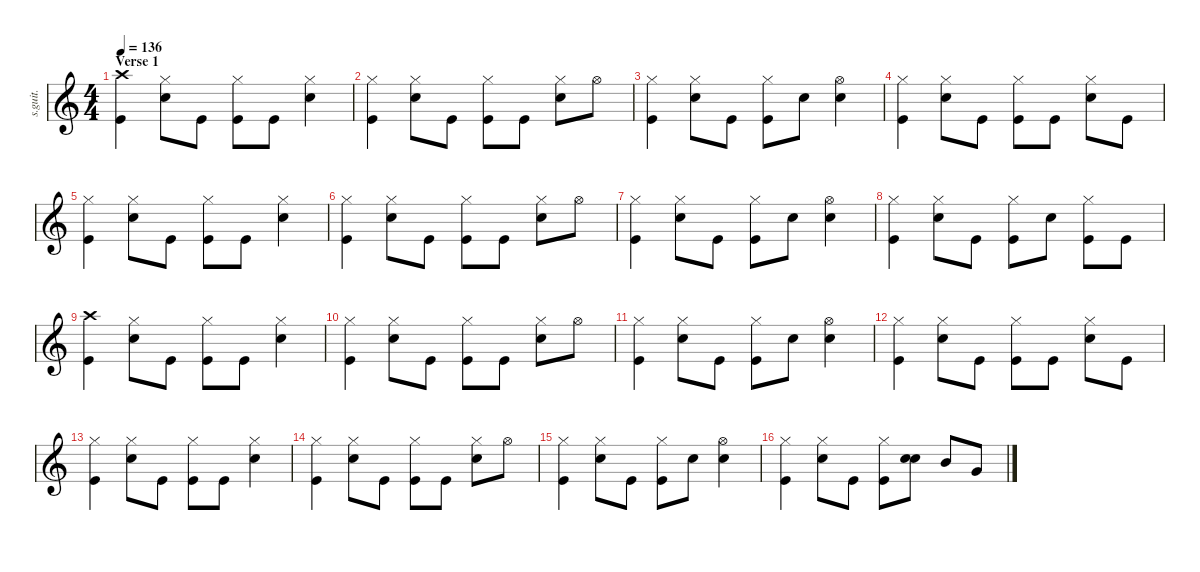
\defaultSystemsLayout 4
\hideDynamics
\bracketExtendMode nobrackets
\track ("Ilan Rubin" "s.guit.") {instrument percussion}
\staff {score}
\articulation defaults
\ts (4 4)
\beaming (8 2 2 2 2)
\section ("" "Verse 1")
\tempo 136
\clef g2
\ks c
("Crash high (hit)" "Kick (hit)").4{lyrics (0 "") lyrics (1 "") lyrics (2 "") lyrics (3 "") lyrics (4 "") dy f} ("Hi-Hat (closed)" "Electric Snare (hit)").8{lyrics (0 "") lyrics (1 "") lyrics (2 "") lyrics (3 "") lyrics (4 "")} "Kick (hit)".8{lyrics (0 "") lyrics (1 "") lyrics (2 "") lyrics (3 "") lyrics (4 "") dy ff} ("Hi-Hat (closed)" "Kick (hit)").8{lyrics (0 "") lyrics (1 "") lyrics (2 "") lyrics (3 "") lyrics (4 "")} "Kick (hit)".8{lyrics (0 "") lyrics (1 "") lyrics (2 "") lyrics (3 "") lyrics (4 "")} ("Hi-Hat (closed)" "Electric Snare (hit)").4{lyrics (0 "") lyrics (1 "") lyrics (2 "") lyrics (3 "") lyrics (4 "") dy f} |
("Hi-Hat (closed)" "Kick (hit)").4{lyrics (0 "") lyrics (1 "") lyrics (2 "") lyrics (3 "") lyrics (4 "")} ("Hi-Hat (closed)" "Electric Snare (hit)").8{lyrics (0 "") lyrics (1 "") lyrics (2 "") lyrics (3 "") lyrics (4 "")} "Kick (hit)".8{lyrics (0 "") lyrics (1 "") lyrics (2 "") lyrics (3 "") lyrics (4 "") dy ff} ("Hi-Hat (closed)" "Kick (hit)").8{lyrics (0 "") lyrics (1 "") lyrics (2 "") lyrics (3 "") lyrics (4 "")} "Kick (hit)".8{lyrics (0 "") lyrics (1 "") lyrics (2 "") lyrics (3 "") lyrics (4 "")} ("Hi-Hat (closed)" "Electric Snare (hit)").8{lyrics (0 "") lyrics (1 "") lyrics (2 "") lyrics (3 "") lyrics (4 "") dy f} "Hi-Hat (open)".8{lyrics (0 "") lyrics (1 "") lyrics (2 "") lyrics (3 "") lyrics (4 "")} |
("Hi-Hat (closed)" "Kick (hit)").4{lyrics (0 "") lyrics (1 "") lyrics (2 "") lyrics (3 "") lyrics (4 "")} ("Hi-Hat (closed)" "Electric Snare (hit)").8{lyrics (0 "") lyrics (1 "") lyrics (2 "") lyrics (3 "") lyrics (4 "")} "Kick (hit)".8{lyrics (0 "") lyrics (1 "") lyrics (2 "") lyrics (3 "") lyrics (4 "") dy ff} ("Hi-Hat (closed)" "Kick (hit)").8{lyrics (0 "") lyrics (1 "") lyrics (2 "") lyrics (3 "") lyrics (4 "")} "Electric Snare (hit)".8{lyrics (0 "") lyrics (1 "") lyrics (2 "") lyrics (3 "") lyrics (4 "") dy f} ("Hi-Hat (open)" "Electric Snare (hit)").4{lyrics (0 "") lyrics (1 "") lyrics (2 "") lyrics (3 "") lyrics (4 "")} |
("Hi-Hat (closed)" "Kick (hit)").4{lyrics (0 "") lyrics (1 "") lyrics (2 "") lyrics (3 "") lyrics (4 "")} ("Hi-Hat (closed)" "Electric Snare (hit)").8{lyrics (0 "") lyrics (1 "") lyrics (2 "") lyrics (3 "") lyrics (4 "")} "Kick (hit)".8{lyrics (0 "") lyrics (1 "") lyrics (2 "") lyrics (3 "") lyrics (4 "") dy ff} ("Hi-Hat (closed)" "Kick (hit)").8{lyrics (0 "") lyrics (1 "") lyrics (2 "") lyrics (3 "") lyrics (4 "")} "Kick (hit)".8{lyrics (0 "") lyrics (1 "") lyrics (2 "") lyrics (3 "") lyrics (4 "")} ("Hi-Hat (closed)" "Electric Snare (hit)").8{lyrics (0 "") lyrics (1 "") lyrics (2 "") lyrics (3 "") lyrics (4 "") dy f} "Kick (hit)".8{lyrics (0 "") lyrics (1 "") lyrics (2 "") lyrics (3 "") lyrics (4 "") dy ff} |
("Hi-Hat (closed)" "Kick (hit)").4{lyrics (0 "") lyrics (1 "") lyrics (2 "") lyrics (3 "") lyrics (4 "")} ("Hi-Hat (closed)" "Electric Snare (hit)").8{lyrics (0 "") lyrics (1 "") lyrics (2 "") lyrics (3 "") lyrics (4 "") dy f} "Kick (hit)".8{lyrics (0 "") lyrics (1 "") lyrics (2 "") lyrics (3 "") lyrics (4 "") dy ff} ("Hi-Hat (closed)" "Kick (hit)").8{lyrics (0 "") lyrics (1 "") lyrics (2 "") lyrics (3 "") lyrics (4 "")} "Kick (hit)".8{lyrics (0 "") lyrics (1 "") lyrics (2 "") lyrics (3 "") lyrics (4 "")} ("Hi-Hat (closed)" "Electric Snare (hit)").4{lyrics (0 "") lyrics (1 "") lyrics (2 "") lyrics (3 "") lyrics (4 "") dy f} |
("Hi-Hat (closed)" "Kick (hit)").4{lyrics (0 "") lyrics (1 "") lyrics (2 "") lyrics (3 "") lyrics (4 "")} ("Hi-Hat (closed)" "Electric Snare (hit)").8{lyrics (0 "") lyrics (1 "") lyrics (2 "") lyrics (3 "") lyrics (4 "")} "Kick (hit)".8{lyrics (0 "") lyrics (1 "") lyrics (2 "") lyrics (3 "") lyrics (4 "") dy ff} ("Hi-Hat (closed)" "Kick (hit)").8{lyrics (0 "") lyrics (1 "") lyrics (2 "") lyrics (3 "") lyrics (4 "")} "Kick (hit)".8{lyrics (0 "") lyrics (1 "") lyrics (2 "") lyrics (3 "") lyrics (4 "")} ("Hi-Hat (closed)" "Electric Snare (hit)").8{lyrics (0 "") lyrics (1 "") lyrics (2 "") lyrics (3 "") lyrics (4 "") dy f} "Hi-Hat (open)".8{lyrics (0 "") lyrics (1 "") lyrics (2 "") lyrics (3 "") lyrics (4 "")} |
("Hi-Hat (closed)" "Kick (hit)").4{lyrics (0 "") lyrics (1 "") lyrics (2 "") lyrics (3 "") lyrics (4 "")} ("Hi-Hat (closed)" "Electric Snare (hit)").8{lyrics (0 "") lyrics (1 "") lyrics (2 "") lyrics (3 "") lyrics (4 "")} "Kick (hit)".8{lyrics (0 "") lyrics (1 "") lyrics (2 "") lyrics (3 "") lyrics (4 "") dy ff} ("Hi-Hat (closed)" "Kick (hit)").8{lyrics (0 "") lyrics (1 "") lyrics (2 "") lyrics (3 "") lyrics (4 "")} "Electric Snare (hit)".8{lyrics (0 "") lyrics (1 "") lyrics (2 "") lyrics (3 "") lyrics (4 "") dy f} ("Hi-Hat (open)" "Electric Snare (hit)").4{lyrics (0 "") lyrics (1 "") lyrics (2 "") lyrics (3 "") lyrics (4 "")} |
("Hi-Hat (closed)" "Kick (hit)").4{lyrics (0 "") lyrics (1 "") lyrics (2 "") lyrics (3 "") lyrics (4 "")} ("Hi-Hat (closed)" "Electric Snare (hit)").8{lyrics (0 "") lyrics (1 "") lyrics (2 "") lyrics (3 "") lyrics (4 "")} "Kick (hit)".8{lyrics (0 "") lyrics (1 "") lyrics (2 "") lyrics (3 "") lyrics (4 "") dy ff} ("Hi-Hat (closed)" "Kick (hit)").8{lyrics (0 "") lyrics (1 "") lyrics (2 "") lyrics (3 "") lyrics (4 "")} "Electric Snare (hit)".8{lyrics (0 "") lyrics (1 "") lyrics (2 "") lyrics (3 "") lyrics (4 "") dy f} ("Hi-Hat (closed)" "Kick (hit)").8{lyrics (0 "") lyrics (1 "") lyrics (2 "") lyrics (3 "") lyrics (4 "")} "Kick (hit)".8{lyrics (0 "") lyrics (1 "") lyrics (2 "") lyrics (3 "") lyrics (4 "") dy ff} |
("Crash high (hit)" "Kick (hit)").4{lyrics (0 "") lyrics (1 "") lyrics (2 "") lyrics (3 "") lyrics (4 "")} ("Hi-Hat (closed)" "Electric Snare (hit)").8{lyrics (0 "") lyrics (1 "") lyrics (2 "") lyrics (3 "") lyrics (4 "") dy f} "Kick (hit)".8{lyrics (0 "") lyrics (1 "") lyrics (2 "") lyrics (3 "") lyrics (4 "") dy ff} ("Hi-Hat (closed)" "Kick (hit)").8{lyrics (0 "") lyrics (1 "") lyrics (2 "") lyrics (3 "") lyrics (4 "")} "Kick (hit)".8{lyrics (0 "") lyrics (1 "") lyrics (2 "") lyrics (3 "") lyrics (4 "")} ("Hi-Hat (closed)" "Electric Snare (hit)").4{lyrics (0 "") lyrics (1 "") lyrics (2 "") lyrics (3 "") lyrics (4 "") dy f} |
("Hi-Hat (closed)" "Kick (hit)").4{lyrics (0 "") lyrics (1 "") lyrics (2 "") lyrics (3 "") lyrics (4 "")} ("Hi-Hat (closed)" "Electric Snare (hit)").8{lyrics (0 "") lyrics (1 "") lyrics (2 "") lyrics (3 "") lyrics (4 "")} "Kick (hit)".8{lyrics (0 "") lyrics (1 "") lyrics (2 "") lyrics (3 "") lyrics (4 "") dy ff} ("Hi-Hat (closed)" "Kick (hit)").8{lyrics (0 "") lyrics (1 "") lyrics (2 "") lyrics (3 "") lyrics (4 "")} "Kick (hit)".8{lyrics (0 "") lyrics (1 "") lyrics (2 "") lyrics (3 "") lyrics (4 "")} ("Hi-Hat (closed)" "Electric Snare (hit)").8{lyrics (0 "") lyrics (1 "") lyrics (2 "") lyrics (3 "") lyrics (4 "") dy f} "Hi-Hat (open)".8{lyrics (0 "") lyrics (1 "") lyrics (2 "") lyrics (3 "") lyrics (4 "")} |
("Hi-Hat (closed)" "Kick (hit)").4{lyrics (0 "") lyrics (1 "") lyrics (2 "") lyrics (3 "") lyrics (4 "")} ("Hi-Hat (closed)" "Electric Snare (hit)").8{lyrics (0 "") lyrics (1 "") lyrics (2 "") lyrics (3 "") lyrics (4 "")} "Kick (hit)".8{lyrics (0 "") lyrics (1 "") lyrics (2 "") lyrics (3 "") lyrics (4 "") dy ff} ("Hi-Hat (closed)" "Kick (hit)").8{lyrics (0 "") lyrics (1 "") lyrics (2 "") lyrics (3 "") lyrics (4 "")} "Electric Snare (hit)".8{lyrics (0 "") lyrics (1 "") lyrics (2 "") lyrics (3 "") lyrics (4 "") dy f} ("Hi-Hat (open)" "Electric Snare (hit)").4{lyrics (0 "") lyrics (1 "") lyrics (2 "") lyrics (3 "") lyrics (4 "")} |
("Hi-Hat (closed)" "Kick (hit)").4{lyrics (0 "") lyrics (1 "") lyrics (2 "") lyrics (3 "") lyrics (4 "")} ("Hi-Hat (closed)" "Electric Snare (hit)").8{lyrics (0 "") lyrics (1 "") lyrics (2 "") lyrics (3 "") lyrics (4 "")} "Kick (hit)".8{lyrics (0 "") lyrics (1 "") lyrics (2 "") lyrics (3 "") lyrics (4 "") dy ff} ("Hi-Hat (closed)" "Kick (hit)").8{lyrics (0 "") lyrics (1 "") lyrics (2 "") lyrics (3 "") lyrics (4 "")} "Kick (hit)".8{lyrics (0 "") lyrics (1 "") lyrics (2 "") lyrics (3 "") lyrics (4 "")} ("Hi-Hat (closed)" "Electric Snare (hit)").8{lyrics (0 "") lyrics (1 "") lyrics (2 "") lyrics (3 "") lyrics (4 "") dy f} "Kick (hit)".8{lyrics (0 "") lyrics (1 "") lyrics (2 "") lyrics (3 "") lyrics (4 "") dy ff} |
("Hi-Hat (closed)" "Kick (hit)").4{lyrics (0 "") lyrics (1 "") lyrics (2 "") lyrics (3 "") lyrics (4 "")} ("Hi-Hat (closed)" "Electric Snare (hit)").8{lyrics (0 "") lyrics (1 "") lyrics (2 "") lyrics (3 "") lyrics (4 "") dy f} "Kick (hit)".8{lyrics (0 "") lyrics (1 "") lyrics (2 "") lyrics (3 "") lyrics (4 "") dy ff} ("Hi-Hat (closed)" "Kick (hit)").8{lyrics (0 "") lyrics (1 "") lyrics (2 "") lyrics (3 "") lyrics (4 "")} "Kick (hit)".8{lyrics (0 "") lyrics (1 "") lyrics (2 "") lyrics (3 "") lyrics (4 "")} ("Hi-Hat (closed)" "Electric Snare (hit)").4{lyrics (0 "") lyrics (1 "") lyrics (2 "") lyrics (3 "") lyrics (4 "") dy f} |
("Hi-Hat (closed)" "Kick (hit)").4{lyrics (0 "") lyrics (1 "") lyrics (2 "") lyrics (3 "") lyrics (4 "")} ("Hi-Hat (closed)" "Electric Snare (hit)").8{lyrics (0 "") lyrics (1 "") lyrics (2 "") lyrics (3 "") lyrics (4 "")} "Kick (hit)".8{lyrics (0 "") lyrics (1 "") lyrics (2 "") lyrics (3 "") lyrics (4 "") dy ff} ("Hi-Hat (closed)" "Kick (hit)").8{lyrics (0 "") lyrics (1 "") lyrics (2 "") lyrics (3 "") lyrics (4 "")} "Kick (hit)".8{lyrics (0 "") lyrics (1 "") lyrics (2 "") lyrics (3 "") lyrics (4 "")} ("Hi-Hat (closed)" "Electric Snare (hit)").8{lyrics (0 "") lyrics (1 "") lyrics (2 "") lyrics (3 "") lyrics (4 "") dy f} "Hi-Hat (open)".8{lyrics (0 "") lyrics (1 "") lyrics (2 "") lyrics (3 "") lyrics (4 "")} |
("Hi-Hat (closed)" "Kick (hit)").4{lyrics (0 "") lyrics (1 "") lyrics (2 "") lyrics (3 "") lyrics (4 "")} ("Hi-Hat (closed)" "Electric Snare (hit)").8{lyrics (0 "") lyrics (1 "") lyrics (2 "") lyrics (3 "") lyrics (4 "")} "Kick (hit)".8{lyrics (0 "") lyrics (1 "") lyrics (2 "") lyrics (3 "") lyrics (4 "") dy ff} ("Hi-Hat (closed)" "Kick (hit)").8{lyrics (0 "") lyrics (1 "") lyrics (2 "") lyrics (3 "") lyrics (4 "")} "Electric Snare (hit)".8{lyrics (0 "") lyrics (1 "") lyrics (2 "") lyrics (3 "") lyrics (4 "") dy f} ("Hi-Hat (open)" "Electric Snare (hit)").4{lyrics (0 "") lyrics (1 "") lyrics (2 "") lyrics (3 "") lyrics (4 "")} |
("Hi-Hat (closed)" "Kick (hit)").4{lyrics (0 "") lyrics (1 "") lyrics (2 "") lyrics (3 "") lyrics (4 "")} ("Hi-Hat (closed)" "Electric Snare (hit)").8{lyrics (0 "") lyrics (1 "") lyrics (2 "") lyrics (3 "") lyrics (4 "")} "Kick (hit)".8{lyrics (0 "") lyrics (1 "") lyrics (2 "") lyrics (3 "") lyrics (4 "") dy ff} ("Hi-Hat (closed)" "Kick (hit)").8{lyrics (0 "") lyrics (1 "") lyrics (2 "") lyrics (3 "") lyrics (4 "")} ("Electric Snare (hit)" "Electric Snare (hit)").8{bd 30 lyrics (0 "") lyrics (1 "") lyrics (2 "") lyrics (3 "") lyrics (4 "") dy f} "Mid Tom (hit)".8{lyrics (0 "") lyrics (1 "") lyrics (2 "") lyrics (3 "") lyrics (4 "")} "Very Low Tom (hit)".8{lyrics (0 "") lyrics (1 "") lyrics (2 "") lyrics (3 "") lyrics (4 "")}
